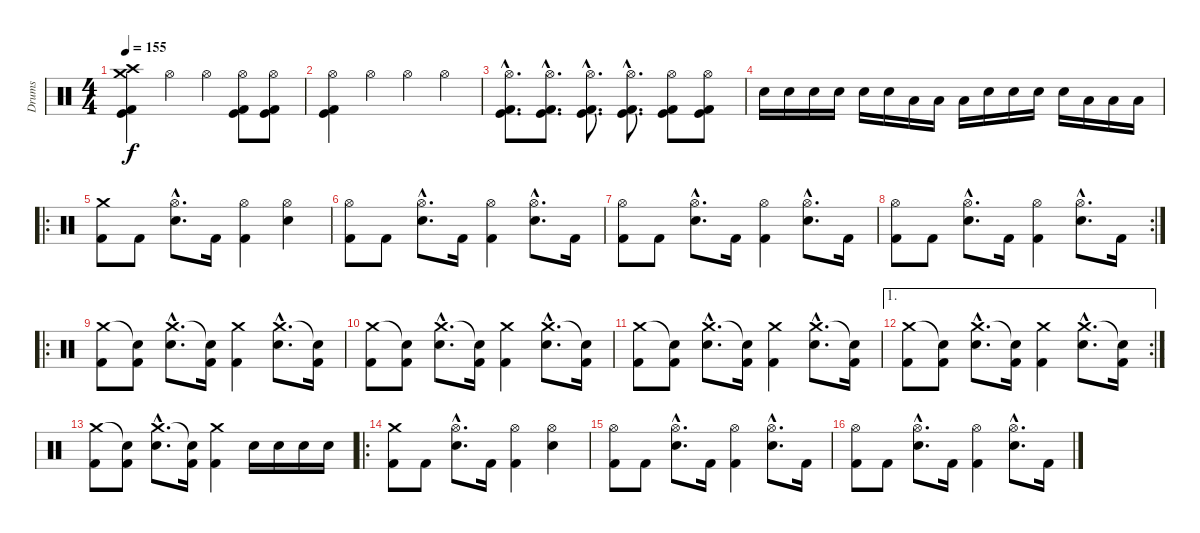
\track ("Drums" "Drums") {instrument percussion}
\staff {score}
\articulation defaults
\ts (4 4)
\tempo 155
\clef neutral
\ks c
("Crash medium (hit)" "Kick (hit) 2" "Kick (hit)" "Crash high (hit)").4{dy f} "Hi-Hat (open)".4 "Hi-Hat (open)".4 ("Hi-Hat (open)" "Kick (hit) 2" "Kick (hit)").8 ("Hi-Hat (open)" "Kick (hit) 2" "Kick (hit)").8 |
("Hi-Hat (open)" "Kick (hit) 2" "Kick (hit)").4 "Hi-Hat (open)".4 "Hi-Hat (open)".4 "Hi-Hat (open)".4 |
("Hi-Hat (open)"{hac} "Kick (hit) 2"{hac} "Kick (hit)"{hac}).8{d} ("Hi-Hat (open)"{hac} "Kick (hit) 2"{hac} "Kick (hit)"{hac}).8{d} ("Hi-Hat (open)"{hac} "Kick (hit) 2"{hac} "Kick (hit)"{hac}).8{d} ("Hi-Hat (open)"{hac} "Kick (hit) 2"{hac} "Kick (hit)"{hac}).8{d} ("Hi-Hat (open)" "Kick (hit) 2" "Kick (hit)").8 ("Hi-Hat (open)" "Kick (hit) 2" "Kick (hit)").8 |
"Snare (hit) 2".16 "Snare (hit) 2".16 "Snare (hit) 2".16 "Snare (hit) 2".16 "Snare (hit) 2".16 "Snare (hit) 2".16 "Low Floor Tom (hit)".16 "Low Floor Tom (hit)".16 "Low Floor Tom (hit)".16 "Snare (hit) 2".16 "Snare (hit) 2".16 "Snare (hit) 2".16 "Snare (hit) 2".16 "Low Floor Tom (hit)".16 "Low Floor Tom (hit)".16 "Low Floor Tom (hit)".16 |
\ro
("Crash medium (hit)" "Kick (hit) 2").8 "Kick (hit) 2".8 ("Hi-Hat (open)"{hac} "Snare (hit) 2"{hac}).8{d} "Kick (hit) 2".16 ("Hi-Hat (open)" "Kick (hit) 2").4 ("Hi-Hat (open)" "Snare (hit) 2").4 |
("Hi-Hat (open)" "Kick (hit) 2").8 "Kick (hit) 2".8 ("Hi-Hat (open)"{hac} "Snare (hit) 2"{hac}).8{d} "Kick (hit) 2".16 ("Hi-Hat (open)" "Kick (hit) 2").4 ("Hi-Hat (open)"{hac} "Snare (hit) 2"{hac}).8{d} "Kick (hit) 2".16 |
("Hi-Hat (open)" "Kick (hit) 2").8 "Kick (hit) 2".8 ("Hi-Hat (open)"{hac} "Snare (hit) 2"{hac}).8{d} "Kick (hit) 2".16 ("Hi-Hat (open)" "Kick (hit) 2").4 ("Hi-Hat (open)"{hac} "Snare (hit) 2"{hac}).8{d} "Kick (hit) 2".16 |
\rc 2
("Hi-Hat (open)" "Kick (hit) 2").8 "Kick (hit) 2".8 ("Hi-Hat (open)"{hac} "Snare (hit) 2"{hac}).8{d} "Kick (hit) 2".16 ("Hi-Hat (open)" "Kick (hit) 2").4 ("Hi-Hat (open)"{hac} "Snare (hit) 2"{hac}).8{d} "Kick (hit) 2".16 |
\ro
("Crash medium (hit)" "Kick (hit) 2").8 ("Snare (hit)"{t} "Kick (hit) 2").8 ("Crash medium (hit)"{hac} "Snare (hit) 2"{hac}).8{d} ("Snare (hit)"{t} "Kick (hit) 2").16 ("Crash medium (hit)" "Kick (hit) 2").4 ("Crash medium (hit)"{hac} "Snare (hit) 2"{hac}).8{d} ("Snare (hit)"{t} "Kick (hit) 2").16 |
("Crash medium (hit)" "Kick (hit) 2").8 ("Snare (hit)"{t} "Kick (hit) 2").8 ("Crash medium (hit)"{hac} "Snare (hit) 2"{hac}).8{d} ("Snare (hit)"{t} "Kick (hit) 2").16 ("Crash medium (hit)" "Kick (hit) 2").4 ("Crash medium (hit)"{hac} "Snare (hit) 2"{hac}).8{d} ("Snare (hit)"{t} "Kick (hit) 2").16 |
("Crash medium (hit)" "Kick (hit) 2").8 ("Snare (hit)"{t} "Kick (hit) 2").8 ("Crash medium (hit)"{hac} "Snare (hit) 2"{hac}).8{d} ("Snare (hit)"{t} "Kick (hit) 2").16 ("Crash medium (hit)" "Kick (hit) 2").4 ("Crash medium (hit)"{hac} "Snare (hit) 2"{hac}).8{d} ("Snare (hit)"{t} "Kick (hit) 2").16 |
\ae 1
\rc 2
("Crash medium (hit)" "Kick (hit) 2").8 ("Snare (hit)"{t} "Kick (hit) 2").8 ("Crash medium (hit)"{hac} "Snare (hit) 2"{hac}).8{d} ("Snare (hit)"{t} "Kick (hit) 2").16 ("Crash medium (hit)" "Kick (hit) 2").4 ("Crash medium (hit)"{hac} "Snare (hit) 2"{hac}).8{d} ("Snare (hit)"{t} "Kick (hit) 2").16 |
("Crash medium (hit)" "Kick (hit) 2").8 ("Snare (hit)"{t} "Kick (hit) 2").8 ("Crash medium (hit)"{hac} "Snare (hit) 2"{hac}).8{d} ("Snare (hit)"{t} "Kick (hit) 2").16 ("Crash medium (hit)" "Kick (hit) 2").4 "Snare (hit) 2".16 "Snare (hit) 2".16 "Snare (hit) 2".16 "Snare (hit) 2".16 |
\ro
("Crash medium (hit)" "Kick (hit) 2").8 "Kick (hit) 2".8 ("Hi-Hat (open)"{hac} "Snare (hit) 2"{hac}).8{d} "Kick (hit) 2".16 ("Hi-Hat (open)" "Kick (hit) 2").4 ("Hi-Hat (open)" "Snare (hit) 2").4 |
("Hi-Hat (open)" "Kick (hit) 2").8 "Kick (hit) 2".8 ("Hi-Hat (open)"{hac} "Snare (hit) 2"{hac}).8{d} "Kick (hit) 2".16 ("Hi-Hat (open)" "Kick (hit) 2").4 ("Hi-Hat (open)"{hac} "Snare (hit) 2"{hac}).8{d} "Kick (hit) 2".16 |
("Hi-Hat (open)" "Kick (hit) 2").8 "Kick (hit) 2".8 ("Hi-Hat (open)"{hac} "Snare (hit) 2"{hac}).8{d} "Kick (hit) 2".16 ("Hi-Hat (open)" "Kick (hit) 2").4 ("Hi-Hat (open)"{hac} "Snare (hit) 2"{hac}).8{d} "Kick (hit) 2".16
